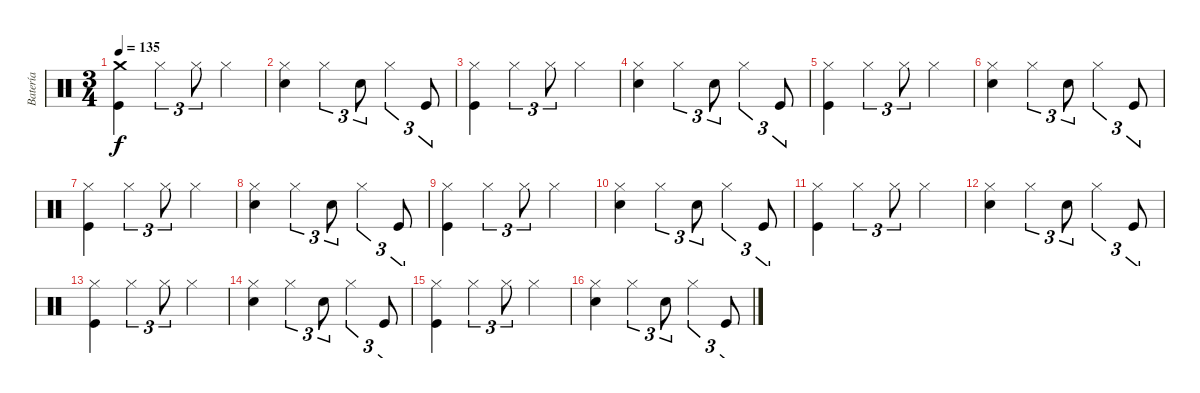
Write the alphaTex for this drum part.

\track ("Batería" "Batería") {instrument percussion}
\staff {score}
\articulation defaults
\ts (3 4)
\tempo 135
\clef neutral
\ks c
("Crash medium (hit)" "Kick (hit)").4{dy f} "Hi-Hat (closed)".4{tu (3 2)} "Hi-Hat (closed)".8{tu (3 2)} "Hi-Hat (closed)".4 |
("Hi-Hat (closed)" "Snare (hit) 2").4 "Hi-Hat (closed)".4{tu (3 2)} "Snare (hit) 2".8{tu (3 2)} "Hi-Hat (closed)".4{tu (3 2)} "Kick (hit)".8{tu (3 2)} |
("Hi-Hat (closed)" "Kick (hit)").4 "Hi-Hat (closed)".4{tu (3 2)} "Hi-Hat (closed)".8{tu (3 2)} "Hi-Hat (closed)".4 |
("Hi-Hat (closed)" "Snare (hit) 2").4 "Hi-Hat (closed)".4{tu (3 2)} "Snare (hit) 2".8{tu (3 2)} "Hi-Hat (closed)".4{tu (3 2)} "Kick (hit)".8{tu (3 2)} |
("Hi-Hat (closed)" "Kick (hit)").4 "Hi-Hat (closed)".4{tu (3 2)} "Hi-Hat (closed)".8{tu (3 2)} "Hi-Hat (closed)".4 |
("Hi-Hat (closed)" "Snare (hit) 2").4 "Hi-Hat (closed)".4{tu (3 2)} "Snare (hit) 2".8{tu (3 2)} "Hi-Hat (closed)".4{tu (3 2)} "Kick (hit)".8{tu (3 2)} |
("Hi-Hat (closed)" "Kick (hit)").4 "Hi-Hat (closed)".4{tu (3 2)} "Hi-Hat (closed)".8{tu (3 2)} "Hi-Hat (closed)".4 |
("Hi-Hat (closed)" "Snare (hit) 2").4 "Hi-Hat (closed)".4{tu (3 2)} "Snare (hit) 2".8{tu (3 2)} "Hi-Hat (closed)".4{tu (3 2)} "Kick (hit)".8{tu (3 2)} |
("Hi-Hat (closed)" "Kick (hit)").4 "Hi-Hat (closed)".4{tu (3 2)} "Hi-Hat (closed)".8{tu (3 2)} "Hi-Hat (closed)".4 |
("Hi-Hat (closed)" "Snare (hit) 2").4 "Hi-Hat (closed)".4{tu (3 2)} "Snare (hit) 2".8{tu (3 2)} "Hi-Hat (closed)".4{tu (3 2)} "Kick (hit)".8{tu (3 2)} |
("Hi-Hat (closed)" "Kick (hit)").4 "Hi-Hat (closed)".4{tu (3 2)} "Hi-Hat (closed)".8{tu (3 2)} "Hi-Hat (closed)".4 |
("Hi-Hat (closed)" "Snare (hit) 2").4 "Hi-Hat (closed)".4{tu (3 2)} "Snare (hit) 2".8{tu (3 2)} "Hi-Hat (closed)".4{tu (3 2)} "Kick (hit)".8{tu (3 2)} |
("Hi-Hat (closed)" "Kick (hit)").4 "Hi-Hat (closed)".4{tu (3 2)} "Hi-Hat (closed)".8{tu (3 2)} "Hi-Hat (closed)".4 |
("Hi-Hat (closed)" "Snare (hit) 2").4 "Hi-Hat (closed)".4{tu (3 2)} "Snare (hit) 2".8{tu (3 2)} "Hi-Hat (closed)".4{tu (3 2)} "Kick (hit)".8{tu (3 2)} |
("Hi-Hat (closed)" "Kick (hit)").4 "Hi-Hat (closed)".4{tu (3 2)} "Hi-Hat (closed)".8{tu (3 2)} "Hi-Hat (closed)".4 |
("Hi-Hat (closed)" "Snare (hit) 2").4 "Hi-Hat (closed)".4{tu (3 2)} "Snare (hit) 2".8{tu (3 2)} "Hi-Hat (closed)".4{tu (3 2)} "Kick (hit)".8{tu (3 2)}
